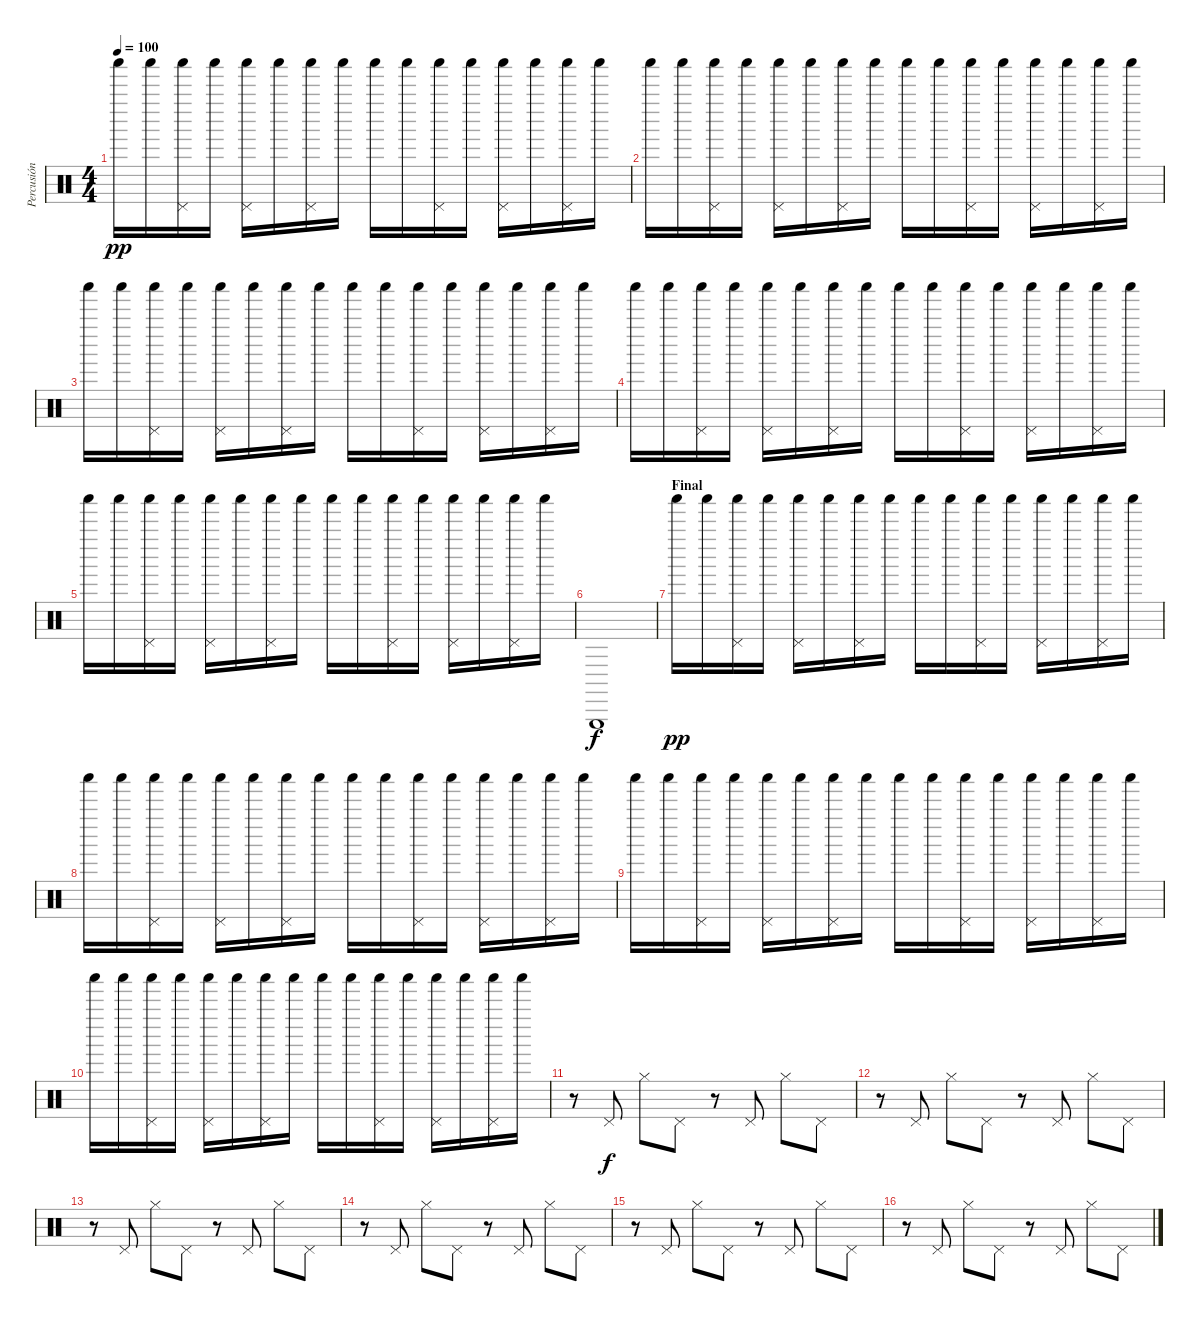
\track ("Percusión" "Percusión") {instrument percussion}
\staff {score}
\articulation defaults
\ts (4 4)
\tempo 100
\clef neutral
\ks c "Shaker (hit)".16{dy pp} "Shaker (hit)".16
("Shaker (hit)" "Pedal Hi-Hat (hit)").16 "Shaker (hit)".16 ("Shaker (hit)" "Pedal Hi-Hat (hit)").16 "Shaker (hit)".16 ("Shaker (hit)" "Pedal Hi-Hat (hit)").16 "Shaker (hit)".16 "Shaker (hit)".16 "Shaker (hit)".16 ("Shaker (hit)" "Pedal Hi-Hat (hit)").16 "Shaker (hit)".16 ("Shaker (hit)" "Pedal Hi-Hat (hit)").16 "Shaker (hit)".16 ("Shaker (hit)" "Pedal Hi-Hat (hit)").16 "Shaker (hit)".16 |
"Shaker (hit)".16 "Shaker (hit)".16 ("Shaker (hit)" "Pedal Hi-Hat (hit)").16 "Shaker (hit)".16 ("Shaker (hit)" "Pedal Hi-Hat (hit)").16 "Shaker (hit)".16 ("Shaker (hit)" "Pedal Hi-Hat (hit)").16 "Shaker (hit)".16 "Shaker (hit)".16 "Shaker (hit)".16 ("Shaker (hit)" "Pedal Hi-Hat (hit)").16 "Shaker (hit)".16 ("Shaker (hit)" "Pedal Hi-Hat (hit)").16 "Shaker (hit)".16 ("Shaker (hit)" "Pedal Hi-Hat (hit)").16 "Shaker (hit)".16 |
"Shaker (hit)".16 "Shaker (hit)".16 ("Shaker (hit)" "Pedal Hi-Hat (hit)").16 "Shaker (hit)".16 ("Shaker (hit)" "Pedal Hi-Hat (hit)").16 "Shaker (hit)".16 ("Shaker (hit)" "Pedal Hi-Hat (hit)").16 "Shaker (hit)".16 "Shaker (hit)".16 "Shaker (hit)".16 ("Shaker (hit)" "Pedal Hi-Hat (hit)").16 "Shaker (hit)".16 ("Shaker (hit)" "Pedal Hi-Hat (hit)").16 "Shaker (hit)".16 ("Shaker (hit)" "Pedal Hi-Hat (hit)").16 "Shaker (hit)".16 |
"Shaker (hit)".16 "Shaker (hit)".16 ("Shaker (hit)" "Pedal Hi-Hat (hit)").16 "Shaker (hit)".16 ("Shaker (hit)" "Pedal Hi-Hat (hit)").16 "Shaker (hit)".16 ("Shaker (hit)" "Pedal Hi-Hat (hit)").16 "Shaker (hit)".16 "Shaker (hit)".16 "Shaker (hit)".16 ("Shaker (hit)" "Pedal Hi-Hat (hit)").16 "Shaker (hit)".16 ("Shaker (hit)" "Pedal Hi-Hat (hit)").16 "Shaker (hit)".16 ("Shaker (hit)" "Pedal Hi-Hat (hit)").16 "Shaker (hit)".16 |
"Shaker (hit)".16 "Shaker (hit)".16 ("Shaker (hit)" "Pedal Hi-Hat (hit)").16 "Shaker (hit)".16 ("Shaker (hit)" "Pedal Hi-Hat (hit)").16 "Shaker (hit)".16 ("Shaker (hit)" "Pedal Hi-Hat (hit)").16 "Shaker (hit)".16 "Shaker (hit)".16 "Shaker (hit)".16 ("Shaker (hit)" "Pedal Hi-Hat (hit)").16 "Shaker (hit)".16 ("Shaker (hit)" "Pedal Hi-Hat (hit)").16 "Shaker (hit)".16 ("Shaker (hit)" "Pedal Hi-Hat (hit)").16 "Shaker (hit)".16 |
"Triangle (hit)".1{dy f} |
\section ("" "Final")
"Shaker (hit)".16{dy pp} "Shaker (hit)".16 ("Shaker (hit)" "Pedal Hi-Hat (hit)").16 "Shaker (hit)".16 ("Shaker (hit)" "Pedal Hi-Hat (hit)").16 "Shaker (hit)".16 ("Shaker (hit)" "Pedal Hi-Hat (hit)").16 "Shaker (hit)".16 "Shaker (hit)".16 "Shaker (hit)".16 ("Shaker (hit)" "Pedal Hi-Hat (hit)").16 "Shaker (hit)".16 ("Shaker (hit)" "Pedal Hi-Hat (hit)").16 "Shaker (hit)".16 ("Shaker (hit)" "Pedal Hi-Hat (hit)").16 "Shaker (hit)".16 |
"Shaker (hit)".16 "Shaker (hit)".16 ("Shaker (hit)" "Pedal Hi-Hat (hit)").16 "Shaker (hit)".16 ("Shaker (hit)" "Pedal Hi-Hat (hit)").16 "Shaker (hit)".16 ("Shaker (hit)" "Pedal Hi-Hat (hit)").16 "Shaker (hit)".16 "Shaker (hit)".16 "Shaker (hit)".16 ("Shaker (hit)" "Pedal Hi-Hat (hit)").16 "Shaker (hit)".16 ("Shaker (hit)" "Pedal Hi-Hat (hit)").16 "Shaker (hit)".16 ("Shaker (hit)" "Pedal Hi-Hat (hit)").16 "Shaker (hit)".16 |
"Shaker (hit)".16 "Shaker (hit)".16 ("Shaker (hit)" "Pedal Hi-Hat (hit)").16 "Shaker (hit)".16 ("Shaker (hit)" "Pedal Hi-Hat (hit)").16 "Shaker (hit)".16 ("Shaker (hit)" "Pedal Hi-Hat (hit)").16 "Shaker (hit)".16 "Shaker (hit)".16 "Shaker (hit)".16 ("Shaker (hit)" "Pedal Hi-Hat (hit)").16 "Shaker (hit)".16 ("Shaker (hit)" "Pedal Hi-Hat (hit)").16 "Shaker (hit)".16 ("Shaker (hit)" "Pedal Hi-Hat (hit)").16 "Shaker (hit)".16 |
"Shaker (hit)".16 "Shaker (hit)".16 ("Shaker (hit)" "Pedal Hi-Hat (hit)").16 "Shaker (hit)".16 ("Shaker (hit)" "Pedal Hi-Hat (hit)").16 "Shaker (hit)".16 ("Shaker (hit)" "Pedal Hi-Hat (hit)").16 "Shaker (hit)".16 "Shaker (hit)".16 "Shaker (hit)".16 ("Shaker (hit)" "Pedal Hi-Hat (hit)").16 "Shaker (hit)".16 ("Shaker (hit)" "Pedal Hi-Hat (hit)").16 "Shaker (hit)".16 ("Shaker (hit)" "Pedal Hi-Hat (hit)").16 "Shaker (hit)".16 |
r.8 "Pedal Hi-Hat (hit)".8{dy f} "Hi-Hat (closed)".8 "Pedal Hi-Hat (hit)".8 r.8 "Pedal Hi-Hat (hit)".8 "Hi-Hat (closed)".8 "Pedal Hi-Hat (hit)".8 |
r.8 "Pedal Hi-Hat (hit)".8 "Hi-Hat (closed)".8 "Pedal Hi-Hat (hit)".8 r.8 "Pedal Hi-Hat (hit)".8 "Hi-Hat (closed)".8 "Pedal Hi-Hat (hit)".8 |
r.8 "Pedal Hi-Hat (hit)".8 "Hi-Hat (closed)".8 "Pedal Hi-Hat (hit)".8 r.8 "Pedal Hi-Hat (hit)".8 "Hi-Hat (closed)".8 "Pedal Hi-Hat (hit)".8 |
r.8 "Pedal Hi-Hat (hit)".8 "Hi-Hat (closed)".8 "Pedal Hi-Hat (hit)".8 r.8 "Pedal Hi-Hat (hit)".8 "Hi-Hat (closed)".8 "Pedal Hi-Hat (hit)".8 |
r.8 "Pedal Hi-Hat (hit)".8 "Hi-Hat (closed)".8 "Pedal Hi-Hat (hit)".8 r.8 "Pedal Hi-Hat (hit)".8 "Hi-Hat (closed)".8 "Pedal Hi-Hat (hit)".8 |
r.8 "Pedal Hi-Hat (hit)".8 "Hi-Hat (closed)".8 "Pedal Hi-Hat (hit)".8 r.8 "Pedal Hi-Hat (hit)".8 "Hi-Hat (closed)".8 "Pedal Hi-Hat (hit)".8
